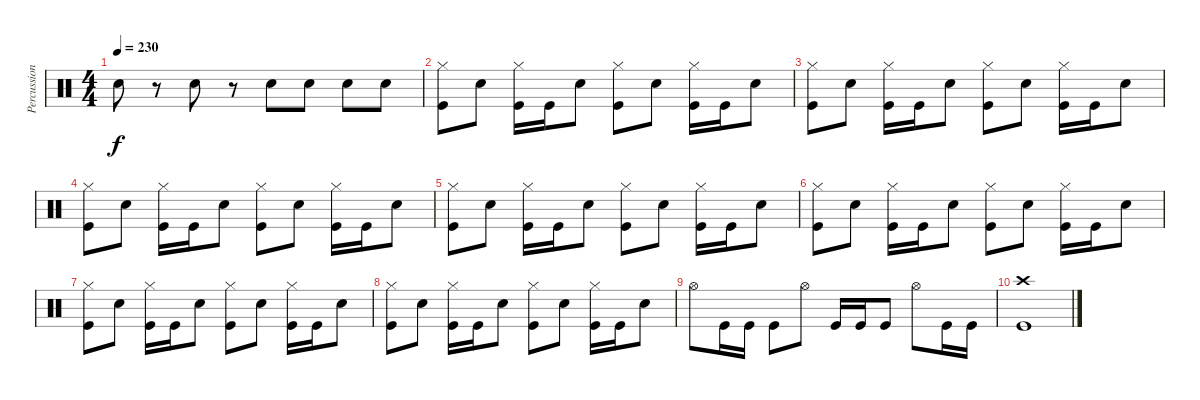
\track ("Percussions" "Percussion") {instrument percussion}
\staff {score}
\articulation defaults
\ts (4 4)
\tempo 230
\clef neutral
\ks c "Electric Snare (hit)".8{dy f}
r.8 "Electric Snare (hit)".8 r.8 "Electric Snare (hit)".8 "Electric Snare (hit)".8 "Electric Snare (hit)".8 "Electric Snare (hit)".8 |
("Hi-Hat (closed)" "Kick (hit)").8 "Electric Snare (hit)".8 ("Hi-Hat (closed)" "Kick (hit)").16 "Kick (hit)".16 "Electric Snare (hit)".8 ("Hi-Hat (closed)" "Kick (hit)").8 "Electric Snare (hit)".8 ("Hi-Hat (closed)" "Kick (hit)").16 "Kick (hit)".16 "Electric Snare (hit)".8 |
("Hi-Hat (closed)" "Kick (hit)").8 "Electric Snare (hit)".8 ("Hi-Hat (closed)" "Kick (hit)").16 "Kick (hit)".16 "Electric Snare (hit)".8 ("Hi-Hat (closed)" "Kick (hit)").8 "Electric Snare (hit)".8 ("Hi-Hat (closed)" "Kick (hit)").16 "Kick (hit)".16 "Electric Snare (hit)".8 |
("Hi-Hat (closed)" "Kick (hit)").8 "Electric Snare (hit)".8 ("Hi-Hat (closed)" "Kick (hit)").16 "Kick (hit)".16 "Electric Snare (hit)".8 ("Hi-Hat (closed)" "Kick (hit)").8 "Electric Snare (hit)".8 ("Hi-Hat (closed)" "Kick (hit)").16 "Kick (hit)".16 "Electric Snare (hit)".8 |
("Hi-Hat (closed)" "Kick (hit)").8 "Electric Snare (hit)".8 ("Hi-Hat (closed)" "Kick (hit)").16 "Kick (hit)".16 "Electric Snare (hit)".8 ("Hi-Hat (closed)" "Kick (hit)").8 "Electric Snare (hit)".8 ("Hi-Hat (closed)" "Kick (hit)").16 "Kick (hit)".16 "Electric Snare (hit)".8 |
("Hi-Hat (closed)" "Kick (hit)").8 "Electric Snare (hit)".8 ("Hi-Hat (closed)" "Kick (hit)").16 "Kick (hit)".16 "Electric Snare (hit)".8 ("Hi-Hat (closed)" "Kick (hit)").8 "Electric Snare (hit)".8 ("Hi-Hat (closed)" "Kick (hit)").16 "Kick (hit)".16 "Electric Snare (hit)".8 |
("Hi-Hat (closed)" "Kick (hit)").8 "Electric Snare (hit)".8 ("Hi-Hat (closed)" "Kick (hit)").16 "Kick (hit)".16 "Electric Snare (hit)".8 ("Hi-Hat (closed)" "Kick (hit)").8 "Electric Snare (hit)".8 ("Hi-Hat (closed)" "Kick (hit)").16 "Kick (hit)".16 "Electric Snare (hit)".8 |
("Hi-Hat (closed)" "Kick (hit)").8 "Electric Snare (hit)".8 ("Hi-Hat (closed)" "Kick (hit)").16 "Kick (hit)".16 "Electric Snare (hit)".8 ("Hi-Hat (closed)" "Kick (hit)").8 "Electric Snare (hit)".8 ("Hi-Hat (closed)" "Kick (hit)").16 "Kick (hit)".16 "Electric Snare (hit)".8 |
"Hi-Hat (open)".8 "Kick (hit)".16 "Kick (hit)".16 "Kick (hit)".8 "Hi-Hat (open)".8 "Kick (hit)".16 "Kick (hit)".16 "Kick (hit)".8 "Hi-Hat (open)".8 "Kick (hit)".16 "Kick (hit)".16 |
("Crash high (hit)" "Kick (hit)").1
